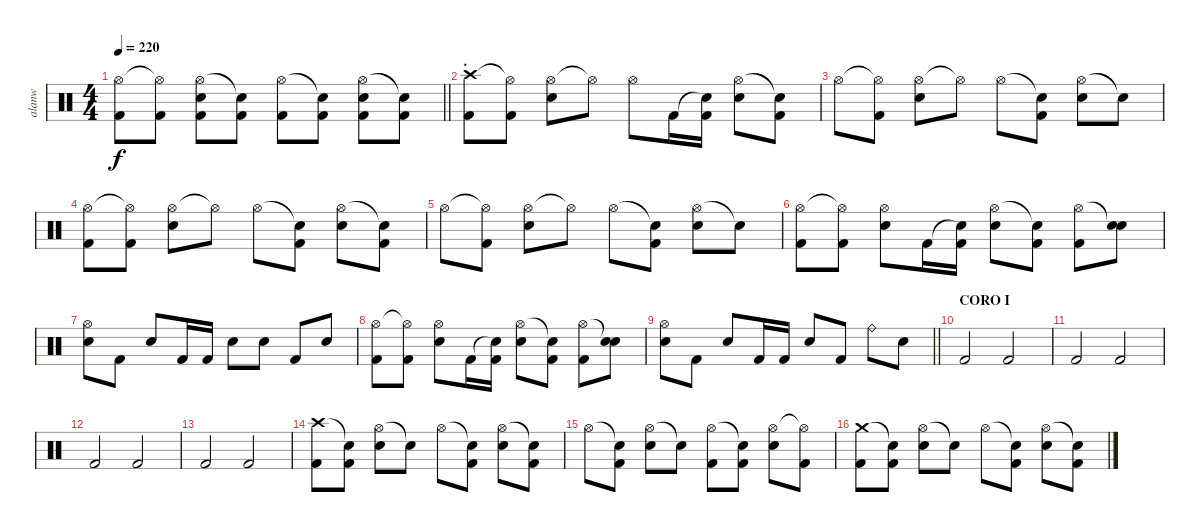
\track ("alanw" "alanw") {instrument percussion}
\staff {score}
\articulation defaults
\ts (4 4)
\tempo 220
\clef neutral
\barLineRight lightlight
\ks c
("Hi-Hat (open)" "Kick (hit) 2").8{dy f} ("Hi-Hat (open)"{t} "Kick (hit) 2").8 ("Hi-Hat (open)" "Electric Snare (hit)" "Kick (hit) 2").8 ("Snare (hit)"{t} "Kick (hit) 2").8 ("Hi-Hat (open)" "Kick (hit) 2").8 ("Snare (hit)"{t} "Kick (hit) 2").8 ("Hi-Hat (open)" "Electric Snare (hit)" "Kick (hit) 2").8 ("Snare (hit)"{t} "Kick (hit) 2").8 |
\section ("" ".")
("Crash high (hit)" "Kick (hit) 2").8 ("Hi-Hat (open)"{t} "Kick (hit) 2").8 ("Hi-Hat (open)" "Electric Snare (hit)").8 "Hi-Hat (open)"{t}.8 "Hi-Hat (open)".8 "Kick (hit) 2".16 ("Snare (hit)"{t} "Kick (hit) 2").16 ("Hi-Hat (open)" "Electric Snare (hit)").8 ("Snare (hit)"{t} "Kick (hit) 2").8 |
"Hi-Hat (open)".8 ("Hi-Hat (open)"{t} "Kick (hit) 2").8 ("Hi-Hat (open)" "Electric Snare (hit)").8 "Hi-Hat (open)"{t}.8 "Hi-Hat (open)".8 ("Snare (hit)"{t} "Kick (hit) 2").8 ("Hi-Hat (open)" "Electric Snare (hit)").8 "Snare (hit)"{t}.8 |
("Hi-Hat (open)" "Kick (hit) 2").8 ("Hi-Hat (open)"{t} "Kick (hit) 2").8 ("Hi-Hat (open)" "Electric Snare (hit)").8 "Hi-Hat (open)"{t}.8 "Hi-Hat (open)".8 ("Snare (hit)"{t} "Kick (hit) 2").8 ("Hi-Hat (open)" "Electric Snare (hit)").8 ("Snare (hit)"{t} "Kick (hit) 2").8 |
"Hi-Hat (open)".8 ("Hi-Hat (open)"{t} "Kick (hit) 2").8 ("Hi-Hat (open)" "Electric Snare (hit)").8 "Hi-Hat (open)"{t}.8 "Hi-Hat (open)".8 ("Snare (hit)"{t} "Kick (hit) 2").8 ("Hi-Hat (open)" "Electric Snare (hit)").8 "Snare (hit)"{t}.8 |
("Hi-Hat (open)" "Kick (hit) 2").8 ("Hi-Hat (open)"{t} "Kick (hit) 2").8 ("Hi-Hat (open)" "Electric Snare (hit)").8 "Kick (hit) 2".16 ("Snare (hit)"{t} "Kick (hit) 2").16 ("Hi-Hat (open)" "Electric Snare (hit)").8 ("Snare (hit)"{t} "Kick (hit) 2").8 ("Hi-Hat (open)" "Kick (hit) 2").8 ("Snare (hit)"{t} "Electric Snare (hit)").8 |
("Hi-Hat (open)" "Electric Snare (hit)").8 "Kick (hit) 2".8 "Electric Snare (hit)".8 "Kick (hit) 2".16 "Kick (hit) 2".16 "Electric Snare (hit)".8 "Electric Snare (hit)".8 "Kick (hit) 2".8 "Electric Snare (hit)".8 |
("Hi-Hat (open)" "Kick (hit) 2").8 ("Hi-Hat (open)"{t} "Kick (hit) 2").8 ("Hi-Hat (open)" "Electric Snare (hit)").8 "Kick (hit) 2".16 ("Snare (hit)"{t} "Kick (hit) 2").16 ("Hi-Hat (open)" "Electric Snare (hit)").8 ("Snare (hit)"{t} "Kick (hit) 2").8 ("Hi-Hat (open)" "Kick (hit) 2").8 ("Snare (hit)"{t} "Electric Snare (hit)").8 |
\barLineRight lightlight
("Hi-Hat (open)" "Electric Snare (hit)").8 "Kick (hit) 2".8 "Electric Snare (hit)".8 "Kick (hit) 2".16 "Kick (hit) 2".16 "Electric Snare (hit)".8 "Kick (hit) 2".8 "Ride (bell)".8 "Electric Snare (hit)".8 |
\section ("" "CORO I")
"Kick (hit) 2".2 "Kick (hit) 2".2 |
"Kick (hit) 2".2 "Kick (hit) 2".2 |
"Kick (hit) 2".2 "Kick (hit) 2".2 |
"Kick (hit) 2".2 "Kick (hit) 2".2 |
("Crash high (hit)" "Kick (hit) 2").8 ("Snare (hit)"{t} "Kick (hit) 2").8 ("Hi-Hat (open)" "Electric Snare (hit)").8 "Snare (hit)"{t}.8 "Hi-Hat (open)".8 ("Snare (hit)"{t} "Kick (hit) 2").8 ("Hi-Hat (open)" "Electric Snare (hit)").8 ("Snare (hit)"{t} "Kick (hit) 2").8 |
"Hi-Hat (open)".8 ("Snare (hit)"{t} "Kick (hit) 2").8 ("Hi-Hat (open)" "Electric Snare (hit)").8 "Snare (hit)"{t}.8 ("Hi-Hat (open)" "Kick (hit) 2").8 ("Snare (hit)"{t} "Kick (hit) 2").8 ("Hi-Hat (open)" "Electric Snare (hit)").8 ("Hi-Hat (open)"{t} "Kick (hit) 2").8 |
("Crash medium (hit)" "Kick (hit) 2").8 ("Snare (hit)"{t} "Kick (hit) 2").8 ("Hi-Hat (open)" "Electric Snare (hit)").8 "Snare (hit)"{t}.8 "Hi-Hat (open)".8 ("Snare (hit)"{t} "Kick (hit) 2").8 ("Hi-Hat (open)" "Electric Snare (hit)").8 ("Snare (hit)"{t} "Kick (hit) 2").8
